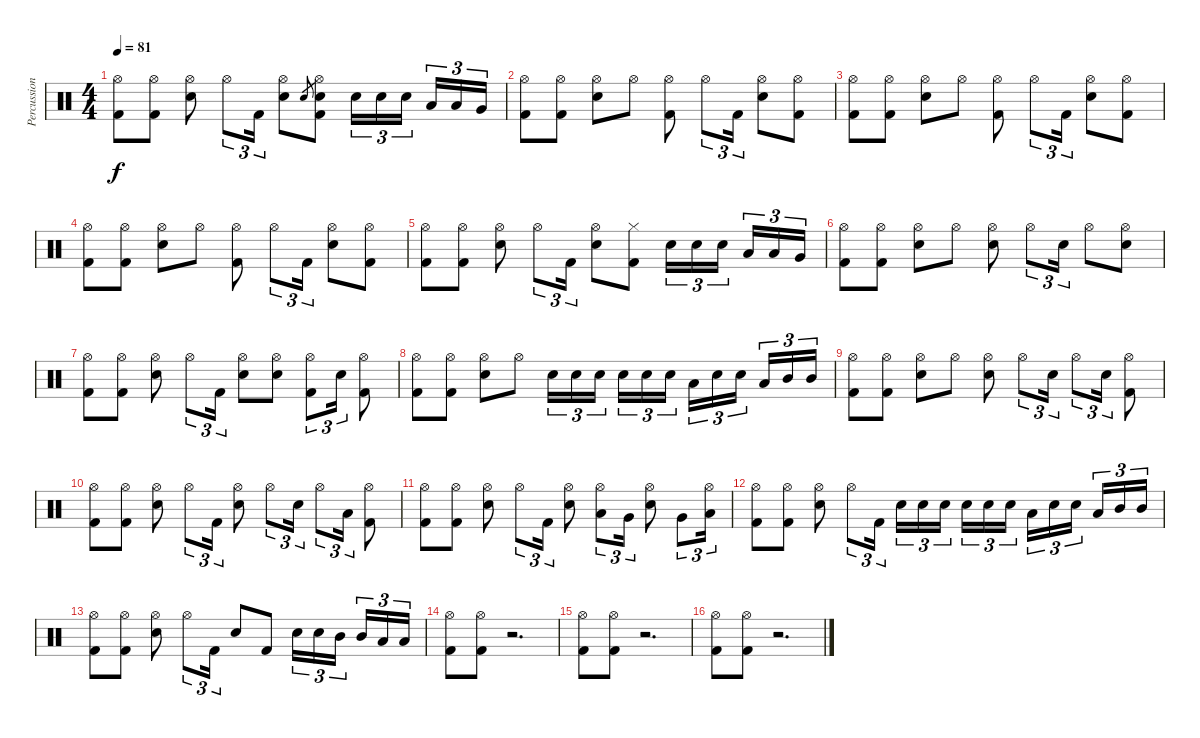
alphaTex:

\track ("Percussions" "Percussion") {instrument percussion}
\staff {score}
\articulation defaults
\ts (4 4)
\tempo 81
\clef neutral
\ks c
("Hi-Hat (open)" "Kick (hit) 2").8{dy f} ("Hi-Hat (open)" "Kick (hit) 2").8 ("Hi-Hat (open)" "Snare (hit) 2").8 "Hi-Hat (open)".8{tu (3 2)} "Kick (hit) 2".16{tu (3 2)} ("Hi-Hat (open)" "Snare (hit) 2").8 "Snare (hit) 2".8{gr} ("Hi-Hat (open)" "Snare (hit) 2" "Kick (hit) 2").8 "Snare (hit) 2".16{tu (3 2)} "Snare (hit) 2".16{tu (3 2)} "Snare (hit) 2".16{tu (3 2) beam splitsecondary} "Low Tom (hit)".16{tu (3 2)} "Low Tom (hit)".16{tu (3 2)} "Very Low Tom (hit)".16{tu (3 2)} |
("Hi-Hat (open)" "Kick (hit) 2").8 ("Hi-Hat (open)" "Kick (hit) 2").8 ("Hi-Hat (open)" "Snare (hit) 2").8 "Hi-Hat (open)".8 ("Hi-Hat (open)" "Kick (hit) 2").8 "Hi-Hat (open)".8{tu (3 2)} "Kick (hit) 2".16{tu (3 2)} ("Hi-Hat (open)" "Snare (hit) 2").8 ("Hi-Hat (open)" "Kick (hit) 2").8 |
("Hi-Hat (open)" "Kick (hit) 2").8 ("Hi-Hat (open)" "Kick (hit) 2").8 ("Hi-Hat (open)" "Snare (hit) 2").8 "Hi-Hat (open)".8 ("Hi-Hat (open)" "Kick (hit) 2").8 "Hi-Hat (open)".8{tu (3 2)} "Kick (hit) 2".16{tu (3 2)} ("Hi-Hat (open)" "Snare (hit) 2").8 ("Hi-Hat (open)" "Kick (hit) 2").8 |
("Hi-Hat (open)" "Kick (hit) 2").8 ("Hi-Hat (open)" "Kick (hit) 2").8 ("Hi-Hat (open)" "Snare (hit) 2").8 "Hi-Hat (open)".8 ("Hi-Hat (open)" "Kick (hit) 2").8 "Hi-Hat (open)".8{tu (3 2)} "Kick (hit) 2".16{tu (3 2)} ("Hi-Hat (open)" "Snare (hit) 2").8 ("Hi-Hat (open)" "Kick (hit) 2").8 |
("Hi-Hat (open)" "Kick (hit) 2").8 ("Hi-Hat (open)" "Kick (hit) 2").8 ("Hi-Hat (open)" "Snare (hit) 2").8 "Hi-Hat (open)".8{tu (3 2)} "Kick (hit) 2".16{tu (3 2)} ("Hi-Hat (open)" "Snare (hit) 2").8 ("Hi-Hat (closed)" "Kick (hit) 2").8 "Snare (hit) 2".16{tu (3 2)} "Snare (hit) 2".16{tu (3 2)} "Snare (hit) 2".16{tu (3 2) beam splitsecondary} "Low Tom (hit)".16{tu (3 2)} "Low Tom (hit)".16{tu (3 2)} "Very Low Tom (hit)".16{tu (3 2)} |
("Hi-Hat (open)" "Kick (hit) 2").8 ("Hi-Hat (open)" "Kick (hit) 2").8 ("Hi-Hat (open)" "Snare (hit) 2").8 "Hi-Hat (open)".8 ("Hi-Hat (open)" "Snare (hit) 2").8 "Hi-Hat (open)".8{tu (3 2)} "Snare (hit) 2".16{tu (3 2)} "Hi-Hat (open)".8 ("Hi-Hat (open)" "Snare (hit) 2").8 |
("Hi-Hat (open)" "Kick (hit) 2").8 ("Hi-Hat (open)" "Kick (hit) 2").8 ("Hi-Hat (open)" "Snare (hit) 2").8 "Hi-Hat (open)".8{tu (3 2)} "Kick (hit) 2".16{tu (3 2)} ("Hi-Hat (open)" "Snare (hit) 2").8 ("Hi-Hat (open)" "Snare (hit) 2").8 ("Hi-Hat (open)" "Kick (hit) 2").8{tu (3 2)} "Snare (hit) 2".16{tu (3 2)} ("Hi-Hat (open)" "Kick (hit) 2").8 |
("Hi-Hat (open)" "Kick (hit) 2").8 ("Hi-Hat (open)" "Kick (hit) 2").8 ("Hi-Hat (open)" "Snare (hit) 2").8 "Hi-Hat (open)".8 "Snare (hit) 2".16{tu (3 2)} "Snare (hit) 2".16{tu (3 2)} "Snare (hit) 2".16{tu (3 2) beam splitsecondary} "Snare (hit) 2".16{tu (3 2)} "Snare (hit) 2".16{tu (3 2)} "Snare (hit) 2".16{tu (3 2)} "Low Tom (hit)".16{tu (3 2)} "Snare (hit) 2".16{tu (3 2)} "Snare (hit) 2".16{tu (3 2) beam splitsecondary} "Low Tom (hit)".16{tu (3 2)} "Mid Tom (hit)".16{tu (3 2)} "Mid Tom (hit)".16{tu (3 2)} |
("Hi-Hat (open)" "Kick (hit) 2").8 ("Hi-Hat (open)" "Kick (hit) 2").8 ("Hi-Hat (open)" "Snare (hit) 2").8 "Hi-Hat (open)".8 ("Hi-Hat (open)" "Snare (hit) 2").8 "Hi-Hat (open)".8{tu (3 2)} "Snare (hit) 2".16{tu (3 2)} "Hi-Hat (open)".8{tu (3 2)} "Snare (hit) 2".16{tu (3 2)} ("Hi-Hat (open)" "Kick (hit) 2").8 |
("Hi-Hat (open)" "Kick (hit) 2").8 ("Hi-Hat (open)" "Kick (hit) 2").8 ("Hi-Hat (open)" "Snare (hit) 2").8 "Hi-Hat (open)".8{tu (3 2)} "Kick (hit) 2".16{tu (3 2)} ("Hi-Hat (open)" "Snare (hit) 2").8 "Hi-Hat (open)".8{tu (3 2)} "Snare (hit) 2".16{tu (3 2)} "Hi-Hat (open)".8{tu (3 2)} "Low Floor Tom (hit)".16{tu (3 2)} ("Hi-Hat (open)" "Kick (hit) 2").8 |
("Hi-Hat (open)" "Kick (hit) 2").8 ("Hi-Hat (open)" "Kick (hit) 2").8 ("Hi-Hat (open)" "Snare (hit) 2").8 "Hi-Hat (open)".8{tu (3 2)} "Kick (hit) 2".16{tu (3 2)} ("Hi-Hat (open)" "Snare (hit) 2").8 ("Hi-Hat (open)" "Low Tom (hit)").8{tu (3 2)} "Very Low Tom (hit)".16{tu (3 2)} ("Hi-Hat (open)" "Snare (hit) 2").8 "Very Low Tom (hit)".8{tu (3 2)} ("Hi-Hat (open)" "Low Floor Tom (hit)").16{tu (3 2)} |
("Hi-Hat (open)" "Kick (hit) 2").8 ("Hi-Hat (open)" "Kick (hit) 2").8 ("Hi-Hat (open)" "Snare (hit) 2").8 "Hi-Hat (open)".8{tu (3 2)} "Kick (hit) 2".16{tu (3 2)} "Snare (hit) 2".16{tu (3 2)} "Snare (hit) 2".16{tu (3 2)} "Snare (hit) 2".16{tu (3 2) beam splitsecondary} "Snare (hit) 2".16{tu (3 2)} "Snare (hit) 2".16{tu (3 2)} "Snare (hit) 2".16{tu (3 2)} "Low Tom (hit)".16{tu (3 2)} "Snare (hit) 2".16{tu (3 2)} "Snare (hit) 2".16{tu (3 2) beam splitsecondary} "Low Tom (hit)".16{tu (3 2)} "Mid Tom (hit)".16{tu (3 2)} "Mid Tom (hit)".16{tu (3 2)} |
("Hi-Hat (open)" "Kick (hit) 2").8 ("Hi-Hat (open)" "Kick (hit) 2").8 ("Hi-Hat (open)" "Snare (hit) 2").8 "Hi-Hat (open)".8{tu (3 2)} "Kick (hit) 2".16{tu (3 2)} "Snare (hit) 2".8 "Kick (hit) 2".8 "Snare (hit) 2".16{tu (3 2)} "Snare (hit) 2".16{tu (3 2)} "Mid Tom (hit)".16{tu (3 2) beam splitsecondary} "Mid Tom (hit)".16{tu (3 2)} "Low Tom (hit)".16{tu (3 2)} "Low Tom (hit)".16{tu (3 2)} |
("Hi-Hat (open)" "Kick (hit) 2").8 ("Hi-Hat (open)" "Kick (hit) 2").8 r.2{d} |
("Hi-Hat (open)" "Kick (hit) 2").8 ("Hi-Hat (open)" "Kick (hit) 2").8 r.2{d} |
("Hi-Hat (open)" "Kick (hit) 2").8 ("Hi-Hat (open)" "Kick (hit) 2").8 r.2{d}
